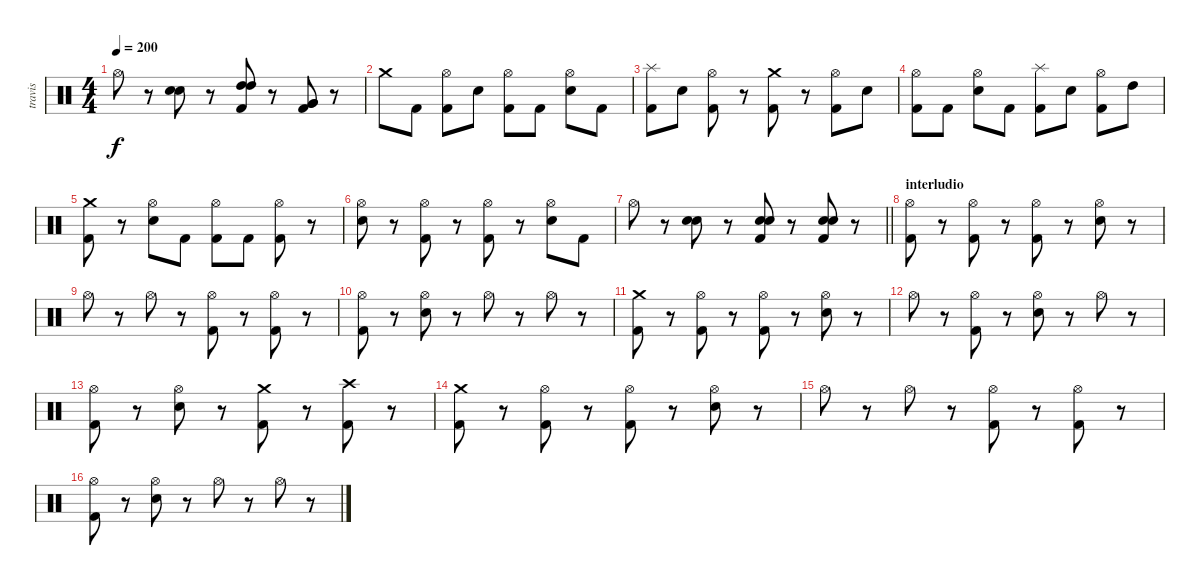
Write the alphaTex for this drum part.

\track ("travis" "travis") {instrument percussion}
\staff {score}
\articulation defaults
\ts (4 4)
\tempo 200
\clef neutral
\ks c "Hi-Hat (open)".8{dy f}
r.8 ("Electric Snare (hit)" "Electric Snare (hit)").8 r.8 ("Kick (hit) 2" "High Tom (hit)" "High Tom (hit)").8 r.8 ("Very Low Tom (hit)" "Very Low Tom (hit)" "Kick (hit) 2").8 r.8 |
"Crash medium (hit)".8 "Kick (hit) 2".8 ("Hi-Hat (open)" "Kick (hit) 2").8 "Electric Snare (hit)".8 ("Hi-Hat (open)" "Kick (hit) 2").8 "Kick (hit) 2".8 ("Hi-Hat (open)" "Electric Snare (hit)").8 "Kick (hit) 2".8 |
("Splash (hit)" "Kick (hit) 2").8 "Electric Snare (hit)".8 ("Hi-Hat (open)" "Kick (hit) 2").8 r.8 ("Crash medium (hit)" "Kick (hit) 2").8 r.8 ("Hi-Hat (open)" "Kick (hit) 2").8 "Electric Snare (hit)".8 |
("Hi-Hat (open)" "Kick (hit) 2").8 "Kick (hit) 2".8 ("Hi-Hat (open)" "Electric Snare (hit)").8 "Kick (hit) 2".8 ("Splash (hit)" "Kick (hit) 2").8 "Electric Snare (hit)".8 ("Hi-Hat (open)" "Kick (hit) 2").8 "High Tom (hit)".8 |
("Crash medium (hit)" "Kick (hit) 2").8 r.8 ("Hi-Hat (open)" "Electric Snare (hit)").8 "Kick (hit) 2".8 ("Hi-Hat (open)" "Kick (hit) 2").8 "Kick (hit) 2".8 ("Hi-Hat (open)" "Kick (hit) 2").8 r.8 |
("Hi-Hat (open)" "Electric Snare (hit)").8 r.8 ("Hi-Hat (open)" "Kick (hit) 2").8 r.8 ("Hi-Hat (open)" "Kick (hit) 2").8 r.8 ("Hi-Hat (open)" "Electric Snare (hit)").8 "Kick (hit) 2".8 |
\barLineRight lightlight "Hi-Hat (open)".8
r.8 ("Electric Snare (hit)" "Electric Snare (hit)").8 r.8 ("Kick (hit) 2" "Electric Snare (hit)" "Electric Snare (hit)").8 r.8 ("Kick (hit) 2" "Electric Snare (hit)" "Electric Snare (hit)").8 r.8 |
\section ("" "interludio")
("Hi-Hat (open)" "Kick (hit) 2").8 r.8 ("Hi-Hat (open)" "Kick (hit) 2").8 r.8 ("Hi-Hat (open)" "Kick (hit) 2").8 r.8 ("Hi-Hat (open)" "Electric Snare (hit)").8 r.8 |
"Hi-Hat (open)".8 r.8 "Hi-Hat (open)".8 r.8 ("Hi-Hat (open)" "Kick (hit) 2").8 r.8 ("Hi-Hat (open)" "Kick (hit) 2").8 r.8 |
("Hi-Hat (open)" "Kick (hit) 2").8 r.8 ("Hi-Hat (open)" "Electric Snare (hit)").8 r.8 "Hi-Hat (open)".8 r.8 "Hi-Hat (open)".8 r.8 |
("Crash medium (hit)" "Kick (hit) 2").8 r.8 ("Hi-Hat (open)" "Kick (hit) 2").8 r.8 ("Hi-Hat (open)" "Kick (hit) 2").8 r.8 ("Hi-Hat (open)" "Electric Snare (hit)").8 r.8 |
"Hi-Hat (open)".8 r.8 ("Hi-Hat (open)" "Kick (hit) 2").8 r.8 ("Hi-Hat (open)" "Electric Snare (hit)").8 r.8 "Hi-Hat (open)".8 r.8 |
("Hi-Hat (open)" "Kick (hit) 2").8 r.8 ("Hi-Hat (open)" "Electric Snare (hit)").8 r.8 ("Crash medium (hit)" "Kick (hit) 2").8 r.8 ("Crash high (hit)" "Kick (hit) 2").8 r.8 |
("Crash medium (hit)" "Kick (hit) 2").8 r.8 ("Hi-Hat (open)" "Kick (hit) 2").8 r.8 ("Hi-Hat (open)" "Kick (hit) 2").8 r.8 ("Hi-Hat (open)" "Electric Snare (hit)").8 r.8 |
"Hi-Hat (open)".8 r.8 "Hi-Hat (open)".8 r.8 ("Hi-Hat (open)" "Kick (hit) 2").8 r.8 ("Hi-Hat (open)" "Kick (hit) 2").8 r.8 |
("Hi-Hat (open)" "Kick (hit) 2").8 r.8 ("Hi-Hat (open)" "Electric Snare (hit)").8 r.8 "Hi-Hat (open)".8 r.8 "Hi-Hat (open)".8 r.8
